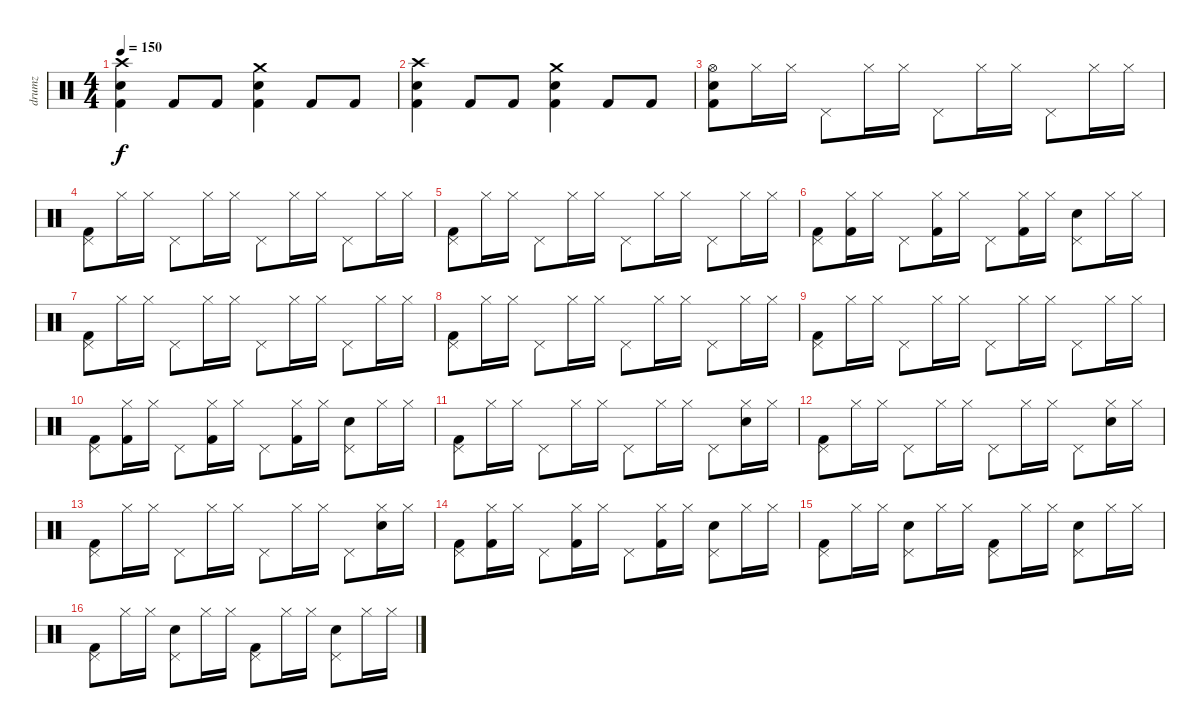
\track ("drumz" "drumz") {instrument percussion}
\staff {score}
\articulation defaults
\ts (4 4)
\tempo 150
\clef neutral
\ks c
("Crash high (hit)" "Electric Snare (hit)" "Kick (hit) 2").4{dy f} "Kick (hit) 2".8 "Kick (hit) 2".8 ("Crash medium (hit)" "Electric Snare (hit)" "Kick (hit) 2").4 "Kick (hit) 2".8 "Kick (hit) 2".8 |
("Crash high (hit)" "Electric Snare (hit)" "Kick (hit) 2").4 "Kick (hit) 2".8 "Kick (hit) 2".8 ("Crash medium (hit)" "Electric Snare (hit)" "Kick (hit) 2").4 "Kick (hit) 2".8 "Kick (hit) 2".8 |
("Hi-Hat (open)" "Electric Snare (hit)" "Kick (hit) 2").8 "Hi-Hat (closed)".16 "Hi-Hat (closed)".16 "Pedal Hi-Hat (hit)".8 "Hi-Hat (closed)".16 "Hi-Hat (closed)".16 "Pedal Hi-Hat (hit)".8 "Hi-Hat (closed)".16 "Hi-Hat (closed)".16 "Pedal Hi-Hat (hit)".8 "Hi-Hat (closed)".16 "Hi-Hat (closed)".16 |
("Pedal Hi-Hat (hit)" "Kick (hit) 2").8 "Hi-Hat (closed)".16 "Hi-Hat (closed)".16 "Pedal Hi-Hat (hit)".8 "Hi-Hat (closed)".16 "Hi-Hat (closed)".16 "Pedal Hi-Hat (hit)".8 "Hi-Hat (closed)".16 "Hi-Hat (closed)".16 "Pedal Hi-Hat (hit)".8 "Hi-Hat (closed)".16 "Hi-Hat (closed)".16 |
("Pedal Hi-Hat (hit)" "Kick (hit) 2").8 "Hi-Hat (closed)".16 "Hi-Hat (closed)".16 "Pedal Hi-Hat (hit)".8 "Hi-Hat (closed)".16 "Hi-Hat (closed)".16 "Pedal Hi-Hat (hit)".8 "Hi-Hat (closed)".16 "Hi-Hat (closed)".16 "Pedal Hi-Hat (hit)".8 "Hi-Hat (closed)".16 "Hi-Hat (closed)".16 |
("Pedal Hi-Hat (hit)" "Kick (hit) 2").8 ("Hi-Hat (closed)" "Kick (hit) 2").16 "Hi-Hat (closed)".16 "Pedal Hi-Hat (hit)".8 ("Hi-Hat (closed)" "Kick (hit) 2").16 "Hi-Hat (closed)".16 "Pedal Hi-Hat (hit)".8 ("Hi-Hat (closed)" "Kick (hit) 2").16 "Hi-Hat (closed)".16 ("Pedal Hi-Hat (hit)" "Electric Snare (hit)").8 "Hi-Hat (closed)".16 "Hi-Hat (closed)".16 |
("Pedal Hi-Hat (hit)" "Kick (hit) 2").8 "Hi-Hat (closed)".16 "Hi-Hat (closed)".16 "Pedal Hi-Hat (hit)".8 "Hi-Hat (closed)".16 "Hi-Hat (closed)".16 "Pedal Hi-Hat (hit)".8 "Hi-Hat (closed)".16 "Hi-Hat (closed)".16 "Pedal Hi-Hat (hit)".8 "Hi-Hat (closed)".16 "Hi-Hat (closed)".16 |
("Pedal Hi-Hat (hit)" "Kick (hit) 2").8 "Hi-Hat (closed)".16 "Hi-Hat (closed)".16 "Pedal Hi-Hat (hit)".8 "Hi-Hat (closed)".16 "Hi-Hat (closed)".16 "Pedal Hi-Hat (hit)".8 "Hi-Hat (closed)".16 "Hi-Hat (closed)".16 "Pedal Hi-Hat (hit)".8 "Hi-Hat (closed)".16 "Hi-Hat (closed)".16 |
("Pedal Hi-Hat (hit)" "Kick (hit) 2").8 "Hi-Hat (closed)".16 "Hi-Hat (closed)".16 "Pedal Hi-Hat (hit)".8 "Hi-Hat (closed)".16 "Hi-Hat (closed)".16 "Pedal Hi-Hat (hit)".8 "Hi-Hat (closed)".16 "Hi-Hat (closed)".16 "Pedal Hi-Hat (hit)".8 "Hi-Hat (closed)".16 "Hi-Hat (closed)".16 |
("Pedal Hi-Hat (hit)" "Kick (hit) 2").8 ("Hi-Hat (closed)" "Kick (hit) 2").16 "Hi-Hat (closed)".16 "Pedal Hi-Hat (hit)".8 ("Hi-Hat (closed)" "Kick (hit) 2").16 "Hi-Hat (closed)".16 "Pedal Hi-Hat (hit)".8 ("Hi-Hat (closed)" "Kick (hit) 2").16 "Hi-Hat (closed)".16 ("Pedal Hi-Hat (hit)" "Electric Snare (hit)").8 "Hi-Hat (closed)".16 "Hi-Hat (closed)".16 |
("Pedal Hi-Hat (hit)" "Kick (hit) 2").8 "Hi-Hat (closed)".16 "Hi-Hat (closed)".16 "Pedal Hi-Hat (hit)".8 "Hi-Hat (closed)".16 "Hi-Hat (closed)".16 "Pedal Hi-Hat (hit)".8 "Hi-Hat (closed)".16 "Hi-Hat (closed)".16 "Pedal Hi-Hat (hit)".8 ("Hi-Hat (closed)" "Electric Snare (hit)").16 "Hi-Hat (closed)".16 |
("Pedal Hi-Hat (hit)" "Kick (hit) 2").8 "Hi-Hat (closed)".16 "Hi-Hat (closed)".16 "Pedal Hi-Hat (hit)".8 "Hi-Hat (closed)".16 "Hi-Hat (closed)".16 "Pedal Hi-Hat (hit)".8 "Hi-Hat (closed)".16 "Hi-Hat (closed)".16 "Pedal Hi-Hat (hit)".8 ("Hi-Hat (closed)" "Electric Snare (hit)").16 "Hi-Hat (closed)".16 |
("Pedal Hi-Hat (hit)" "Kick (hit) 2").8 "Hi-Hat (closed)".16 "Hi-Hat (closed)".16 "Pedal Hi-Hat (hit)".8 "Hi-Hat (closed)".16 "Hi-Hat (closed)".16 "Pedal Hi-Hat (hit)".8 "Hi-Hat (closed)".16 "Hi-Hat (closed)".16 "Pedal Hi-Hat (hit)".8 ("Hi-Hat (closed)" "Electric Snare (hit)").16 "Hi-Hat (closed)".16 |
("Pedal Hi-Hat (hit)" "Kick (hit) 2").8 ("Hi-Hat (closed)" "Kick (hit) 2").16 "Hi-Hat (closed)".16 "Pedal Hi-Hat (hit)".8 ("Hi-Hat (closed)" "Kick (hit) 2").16 "Hi-Hat (closed)".16 "Pedal Hi-Hat (hit)".8 ("Hi-Hat (closed)" "Kick (hit) 2").16 "Hi-Hat (closed)".16 ("Pedal Hi-Hat (hit)" "Electric Snare (hit)").8 "Hi-Hat (closed)".16 "Hi-Hat (closed)".16 |
("Pedal Hi-Hat (hit)" "Kick (hit) 2").8 "Hi-Hat (closed)".16 "Hi-Hat (closed)".16 ("Pedal Hi-Hat (hit)" "Electric Snare (hit)").8 "Hi-Hat (closed)".16 "Hi-Hat (closed)".16 ("Pedal Hi-Hat (hit)" "Kick (hit) 2").8 "Hi-Hat (closed)".16 "Hi-Hat (closed)".16 ("Pedal Hi-Hat (hit)" "Electric Snare (hit)").8 "Hi-Hat (closed)".16 "Hi-Hat (closed)".16 |
("Pedal Hi-Hat (hit)" "Kick (hit) 2").8 "Hi-Hat (closed)".16 "Hi-Hat (closed)".16 ("Pedal Hi-Hat (hit)" "Electric Snare (hit)").8 "Hi-Hat (closed)".16 "Hi-Hat (closed)".16 ("Pedal Hi-Hat (hit)" "Kick (hit) 2").8 "Hi-Hat (closed)".16 "Hi-Hat (closed)".16 ("Pedal Hi-Hat (hit)" "Electric Snare (hit)").8 "Hi-Hat (closed)".16 "Hi-Hat (closed)".16
